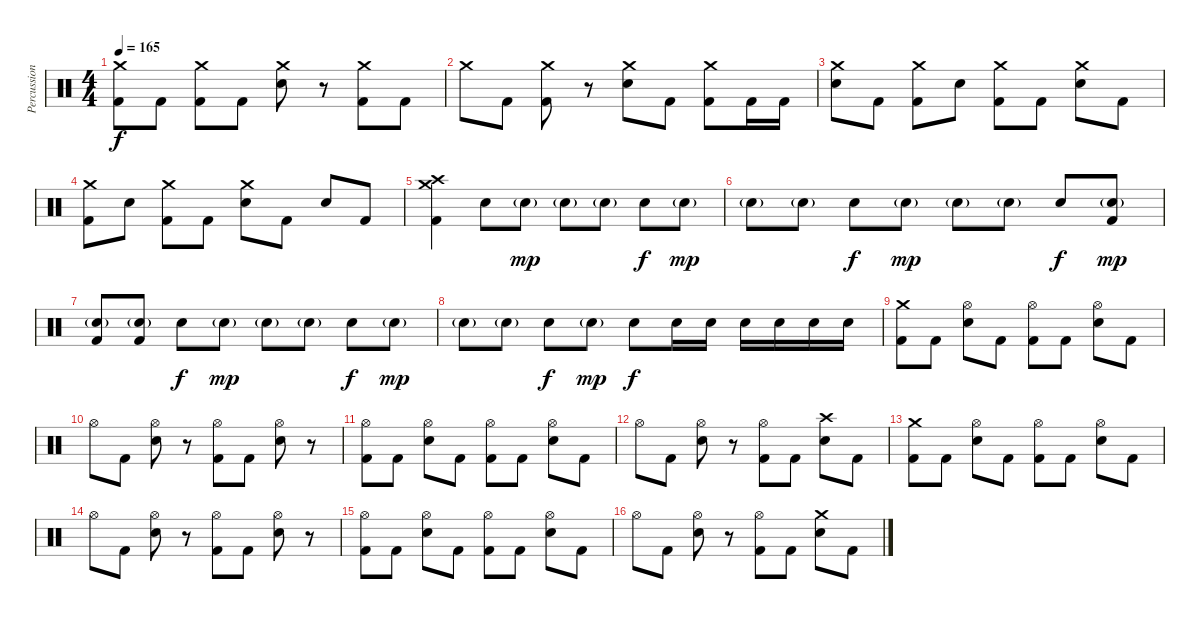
\track ("Percussion" "Percussion") {instrument percussion}
\staff {score}
\articulation defaults
\ts (4 4)
\tempo 165
\clef neutral
\ks c
("Crash medium (hit)" "Kick (hit) 2").8{dy f} "Kick (hit) 2".8 ("Crash medium (hit)" "Kick (hit) 2").8 "Kick (hit) 2".8 ("Crash medium (hit)" "Snare (hit) 2").8 r.8 ("Crash medium (hit)" "Kick (hit) 2").8 "Kick (hit) 2".8 |
"Crash medium (hit)".8 "Kick (hit) 2".8 ("Crash medium (hit)" "Kick (hit) 2").8 r.8 ("Crash medium (hit)" "Snare (hit) 2").8 "Kick (hit) 2".8 ("Crash medium (hit)" "Kick (hit) 2").8 "Kick (hit) 2".16 "Kick (hit) 2".16 |
("Crash medium (hit)" "Snare (hit) 2").8 "Kick (hit) 2".8 ("Crash medium (hit)" "Kick (hit) 2").8 "Snare (hit) 2".8 ("Crash medium (hit)" "Kick (hit) 2").8 "Kick (hit) 2".8 ("Crash medium (hit)" "Snare (hit) 2").8 "Kick (hit) 2".8 |
("Crash medium (hit)" "Kick (hit) 2").8 "Snare (hit) 2".8 ("Crash medium (hit)" "Kick (hit) 2").8 "Kick (hit) 2".8 ("Crash medium (hit)" "Snare (hit) 2").8 "Kick (hit) 2".8 "Snare (hit) 2".8 "Kick (hit) 2".8 |
("Crash medium (hit)" "Crash high (hit)" "Kick (hit) 2").4 "Snare (hit) 2".8 "Snare (hit) 2"{g}.8{dy mp} "Snare (hit) 2"{g}.8 "Snare (hit) 2"{g}.8 "Snare (hit) 2".8{dy f} "Snare (hit) 2"{g}.8{dy mp} |
"Snare (hit) 2"{g}.8 "Snare (hit) 2"{g}.8 "Snare (hit) 2".8{dy f} "Snare (hit) 2"{g}.8{dy mp} "Snare (hit) 2"{g}.8 "Snare (hit) 2"{g}.8 "Snare (hit) 2".8{dy f} ("Snare (hit) 2"{g} "Kick (hit) 2").8{dy mp} |
("Snare (hit) 2"{g} "Kick (hit) 2").8 ("Snare (hit) 2"{g} "Kick (hit) 2").8 "Snare (hit) 2".8{dy f} "Snare (hit) 2"{g}.8{dy mp} "Snare (hit) 2"{g}.8 "Snare (hit) 2"{g}.8 "Snare (hit) 2".8{dy f} "Snare (hit) 2"{g}.8{dy mp} |
"Snare (hit) 2"{g}.8 "Snare (hit) 2"{g}.8 "Snare (hit) 2".8{dy f} "Snare (hit) 2"{g}.8{dy mp} "Snare (hit) 2".8{dy f} "Snare (hit) 2".16 "Snare (hit) 2".16 "Snare (hit) 2".16 "Snare (hit) 2".16 "Snare (hit) 2".16 "Snare (hit) 2".16 |
("Crash medium (hit)" "Kick (hit) 2").8 "Kick (hit) 2".8 ("Hi-Hat (open)" "Snare (hit) 2").8 "Kick (hit) 2".8 ("Hi-Hat (open)" "Kick (hit) 2").8 "Kick (hit) 2".8 ("Hi-Hat (open)" "Snare (hit) 2").8 "Kick (hit) 2".8 |
"Hi-Hat (open)".8 "Kick (hit) 2".8 ("Hi-Hat (open)" "Snare (hit) 2").8 r.8 ("Hi-Hat (open)" "Kick (hit) 2").8 "Kick (hit) 2".8 ("Hi-Hat (open)" "Snare (hit) 2").8 r.8 |
("Hi-Hat (open)" "Kick (hit) 2").8 "Kick (hit) 2".8 ("Hi-Hat (open)" "Snare (hit) 2").8 "Kick (hit) 2".8 ("Hi-Hat (open)" "Kick (hit) 2").8 "Kick (hit) 2".8 ("Hi-Hat (open)" "Snare (hit) 2").8 "Kick (hit) 2".8 |
"Hi-Hat (open)".8 "Kick (hit) 2".8 ("Hi-Hat (open)" "Snare (hit) 2").8 r.8 ("Hi-Hat (open)" "Kick (hit) 2").8 "Kick (hit) 2".8 ("Crash high (hit)" "Snare (hit) 2").8 "Kick (hit) 2".8 |
("Crash medium (hit)" "Kick (hit) 2").8 "Kick (hit) 2".8 ("Hi-Hat (open)" "Snare (hit) 2").8 "Kick (hit) 2".8 ("Hi-Hat (open)" "Kick (hit) 2").8 "Kick (hit) 2".8 ("Hi-Hat (open)" "Snare (hit) 2").8 "Kick (hit) 2".8 |
"Hi-Hat (open)".8 "Kick (hit) 2".8 ("Hi-Hat (open)" "Snare (hit) 2").8 r.8 ("Hi-Hat (open)" "Kick (hit) 2").8 "Kick (hit) 2".8 ("Hi-Hat (open)" "Snare (hit) 2").8 r.8 |
("Hi-Hat (open)" "Kick (hit) 2").8 "Kick (hit) 2".8 ("Hi-Hat (open)" "Snare (hit) 2").8 "Kick (hit) 2".8 ("Hi-Hat (open)" "Kick (hit) 2").8 "Kick (hit) 2".8 ("Hi-Hat (open)" "Snare (hit) 2").8 "Kick (hit) 2".8 |
"Hi-Hat (open)".8 "Kick (hit) 2".8 ("Hi-Hat (open)" "Snare (hit) 2").8 r.8 ("Hi-Hat (open)" "Kick (hit) 2").8 "Kick (hit) 2".8 ("Crash medium (hit)" "Snare (hit) 2").8 "Kick (hit) 2".8
